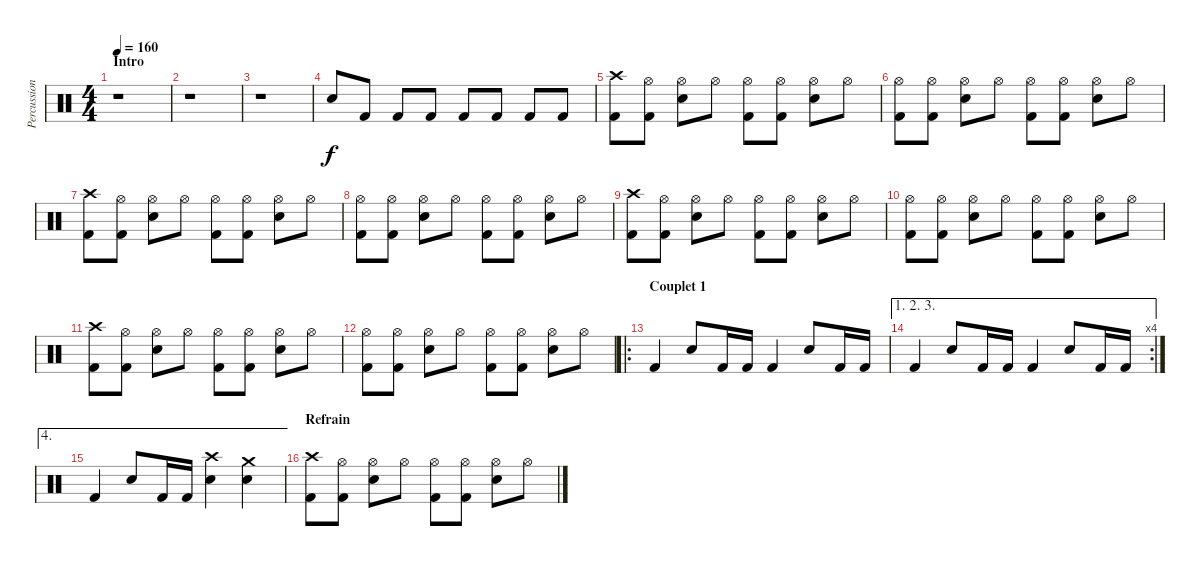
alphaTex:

\track ("Percussions" "Percussion") {instrument percussion}
\staff {score}
\articulation defaults
\ts (4 4)
\section ("" "Intro")
\tempo 160
\clef neutral
\ks c
r.1{dy f} |
r.1 |
r.1 |
"Electric Snare (hit)".8 "Kick (hit) 2".8 "Kick (hit) 2".8 "Kick (hit) 2".8 "Kick (hit) 2".8 "Kick (hit) 2".8 "Kick (hit) 2".8 "Kick (hit) 2".8 |
("Crash high (hit)" "Kick (hit) 2").8 ("Hi-Hat (open)" "Kick (hit) 2").8 ("Hi-Hat (open)" "Electric Snare (hit)").8 "Hi-Hat (open)".8 ("Hi-Hat (open)" "Kick (hit) 2").8 ("Hi-Hat (open)" "Kick (hit) 2").8 ("Hi-Hat (open)" "Electric Snare (hit)").8 "Hi-Hat (open)".8 |
("Hi-Hat (open)" "Kick (hit) 2").8 ("Hi-Hat (open)" "Kick (hit) 2").8 ("Hi-Hat (open)" "Electric Snare (hit)").8 "Hi-Hat (open)".8 ("Hi-Hat (open)" "Kick (hit) 2").8 ("Hi-Hat (open)" "Kick (hit) 2").8 ("Hi-Hat (open)" "Electric Snare (hit)").8 "Hi-Hat (open)".8 |
("Crash high (hit)" "Kick (hit) 2").8 ("Hi-Hat (open)" "Kick (hit) 2").8 ("Hi-Hat (open)" "Electric Snare (hit)").8 "Hi-Hat (open)".8 ("Hi-Hat (open)" "Kick (hit) 2").8 ("Hi-Hat (open)" "Kick (hit) 2").8 ("Hi-Hat (open)" "Electric Snare (hit)").8 "Hi-Hat (open)".8 |
("Hi-Hat (open)" "Kick (hit) 2").8 ("Hi-Hat (open)" "Kick (hit) 2").8 ("Hi-Hat (open)" "Electric Snare (hit)").8 "Hi-Hat (open)".8 ("Hi-Hat (open)" "Kick (hit) 2").8 ("Hi-Hat (open)" "Kick (hit) 2").8 ("Hi-Hat (open)" "Electric Snare (hit)").8 "Hi-Hat (open)".8 |
("Crash high (hit)" "Kick (hit) 2").8 ("Hi-Hat (open)" "Kick (hit) 2").8 ("Hi-Hat (open)" "Electric Snare (hit)").8 "Hi-Hat (open)".8 ("Hi-Hat (open)" "Kick (hit) 2").8 ("Hi-Hat (open)" "Kick (hit) 2").8 ("Hi-Hat (open)" "Electric Snare (hit)").8 "Hi-Hat (open)".8 |
("Hi-Hat (open)" "Kick (hit) 2").8 ("Hi-Hat (open)" "Kick (hit) 2").8 ("Hi-Hat (open)" "Electric Snare (hit)").8 "Hi-Hat (open)".8 ("Hi-Hat (open)" "Kick (hit) 2").8 ("Hi-Hat (open)" "Kick (hit) 2").8 ("Hi-Hat (open)" "Electric Snare (hit)").8 "Hi-Hat (open)".8 |
("Crash high (hit)" "Kick (hit) 2").8 ("Hi-Hat (open)" "Kick (hit) 2").8 ("Hi-Hat (open)" "Electric Snare (hit)").8 "Hi-Hat (open)".8 ("Hi-Hat (open)" "Kick (hit) 2").8 ("Hi-Hat (open)" "Kick (hit) 2").8 ("Hi-Hat (open)" "Electric Snare (hit)").8 "Hi-Hat (open)".8 |
("Hi-Hat (open)" "Kick (hit) 2").8 ("Hi-Hat (open)" "Kick (hit) 2").8 ("Hi-Hat (open)" "Electric Snare (hit)").8 "Hi-Hat (open)".8 ("Hi-Hat (open)" "Kick (hit) 2").8 ("Hi-Hat (open)" "Kick (hit) 2").8 ("Hi-Hat (open)" "Electric Snare (hit)").8 "Hi-Hat (open)".8 |
\ro
\section ("" "Couplet 1")
"Kick (hit) 2".4{volume 10} "Electric Snare (hit)".8 "Kick (hit) 2".16 "Kick (hit) 2".16 "Kick (hit) 2".4 "Electric Snare (hit)".8 "Kick (hit) 2".16 "Kick (hit) 2".16 |
\ae (1 2 3)
\rc 4 "Kick (hit) 2".4 "Electric Snare (hit)".8 "Kick (hit) 2".16 "Kick (hit) 2".16 "Kick (hit) 2".4 "Electric Snare (hit)".8 "Kick (hit) 2".16 "Kick (hit) 2".16
|
\ae 4 "Kick (hit) 2".4 "Electric Snare (hit)".8 "Kick (hit) 2".16 "Kick (hit) 2".16
("Crash high (hit)" "Electric Snare (hit)").4{volume 12} ("Crash medium (hit)" "Electric Snare (hit)").4 |
\section ("" "Refrain")
("Crash high (hit)" "Kick (hit) 2").8 ("Hi-Hat (open)" "Kick (hit) 2").8 ("Hi-Hat (open)" "Electric Snare (hit)").8 "Hi-Hat (open)".8 ("Hi-Hat (open)" "Kick (hit) 2").8 ("Hi-Hat (open)" "Kick (hit) 2").8 ("Hi-Hat (open)" "Electric Snare (hit)").8 "Hi-Hat (open)".8
